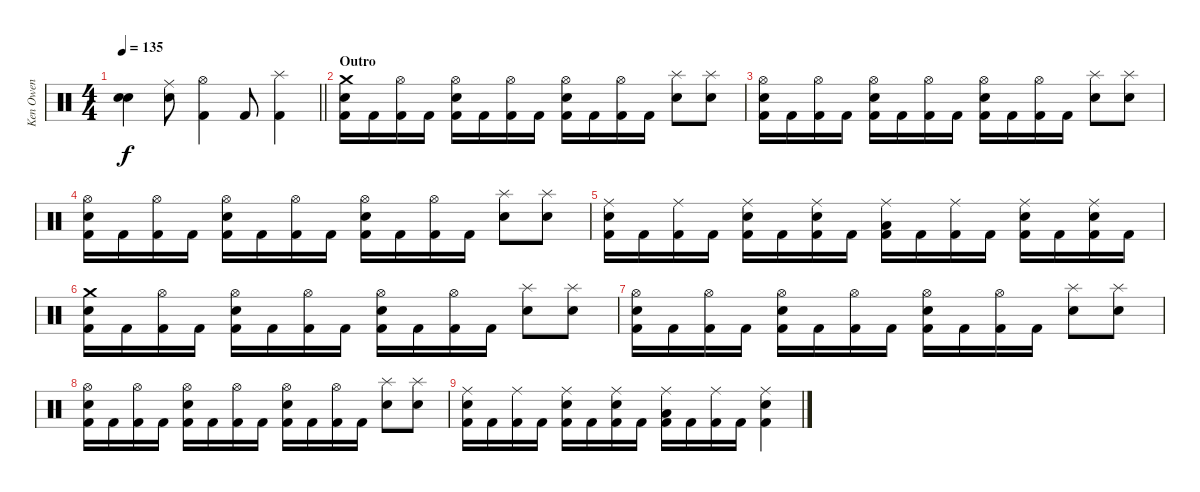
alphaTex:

\track ("Ken Owen" "Ken Owen") {instrument percussion}
\staff {score}
\articulation defaults
\ts (4 4)
\tempo 135
\clef neutral
\barLineRight lightlight
\ks c
("Snare (hit)"{t} "Snare (hit)"{t}).4{dy f} ("Ride (middle)" "Electric Snare (hit)").8 ("Hi-Hat (open)" "Kick (hit) 2").4 "Kick (hit) 2".8 ("Splash (hit)" "Kick (hit) 2").4 |
\section ("" "Outro")
("Crash medium (hit)" "Electric Snare (hit)" "Kick (hit) 2").16 "Kick (hit) 2".16 ("Hi-Hat (open)" "Kick (hit) 2").16 "Kick (hit) 2".16 ("Hi-Hat (open)" "Electric Snare (hit)" "Kick (hit) 2").16 "Kick (hit) 2".16 ("Hi-Hat (open)" "Kick (hit) 2").16 "Kick (hit) 2".16 ("Hi-Hat (open)" "Electric Snare (hit)" "Kick (hit) 2").16 "Kick (hit) 2".16 ("Hi-Hat (open)" "Kick (hit) 2").16 "Kick (hit) 2".16 ("Splash (hit)" "Electric Snare (hit)").8 ("Splash (hit)" "Electric Snare (hit)").8 |
("Hi-Hat (open)" "Electric Snare (hit)" "Kick (hit) 2").16 "Kick (hit) 2".16 ("Hi-Hat (open)" "Kick (hit) 2").16 "Kick (hit) 2".16 ("Hi-Hat (open)" "Electric Snare (hit)" "Kick (hit) 2").16 "Kick (hit) 2".16 ("Hi-Hat (open)" "Kick (hit) 2").16 "Kick (hit) 2".16 ("Hi-Hat (open)" "Electric Snare (hit)" "Kick (hit) 2").16 "Kick (hit) 2".16 ("Hi-Hat (open)" "Kick (hit) 2").16 "Kick (hit) 2".16 ("Splash (hit)" "Electric Snare (hit)").8 ("Splash (hit)" "Electric Snare (hit)").8 |
("Hi-Hat (open)" "Electric Snare (hit)" "Kick (hit) 2").16 "Kick (hit) 2".16 ("Hi-Hat (open)" "Kick (hit) 2").16 "Kick (hit) 2".16 ("Hi-Hat (open)" "Electric Snare (hit)" "Kick (hit) 2").16 "Kick (hit) 2".16 ("Hi-Hat (open)" "Kick (hit) 2").16 "Kick (hit) 2".16 ("Hi-Hat (open)" "Electric Snare (hit)" "Kick (hit) 2").16 "Kick (hit) 2".16 ("Hi-Hat (open)" "Kick (hit) 2").16 "Kick (hit) 2".16 ("Splash (hit)" "Electric Snare (hit)").8 ("Splash (hit)" "Electric Snare (hit)").8 |
("Ride (middle)" "Electric Snare (hit)" "Kick (hit) 2").16 "Kick (hit) 2".16 ("Ride (middle)" "Kick (hit) 2").16 "Kick (hit) 2".16 ("Ride (middle)" "Electric Snare (hit)" "Kick (hit) 2").16 "Kick (hit) 2".16 ("Ride (middle)" "Electric Snare (hit)" "Kick (hit) 2").16 "Kick (hit) 2".16 ("Ride (middle)" "Low Floor Tom (hit)" "Kick (hit) 2").16 "Kick (hit) 2".16 ("Ride (middle)" "Kick (hit) 2").16 "Kick (hit) 2".16 ("Ride (middle)" "Electric Snare (hit)" "Kick (hit) 2").16 "Kick (hit) 2".16 ("Ride (middle)" "Electric Snare (hit)" "Kick (hit) 2").16 "Kick (hit) 2".16 |
("Crash medium (hit)" "Electric Snare (hit)" "Kick (hit) 2").16 "Kick (hit) 2".16 ("Hi-Hat (open)" "Kick (hit) 2").16 "Kick (hit) 2".16 ("Hi-Hat (open)" "Electric Snare (hit)" "Kick (hit) 2").16 "Kick (hit) 2".16 ("Hi-Hat (open)" "Kick (hit) 2").16 "Kick (hit) 2".16 ("Hi-Hat (open)" "Electric Snare (hit)" "Kick (hit) 2").16 "Kick (hit) 2".16 ("Hi-Hat (open)" "Kick (hit) 2").16 "Kick (hit) 2".16 ("Splash (hit)" "Electric Snare (hit)").8 ("Splash (hit)" "Electric Snare (hit)").8 |
("Hi-Hat (open)" "Electric Snare (hit)" "Kick (hit) 2").16 "Kick (hit) 2".16 ("Hi-Hat (open)" "Kick (hit) 2").16 "Kick (hit) 2".16 ("Hi-Hat (open)" "Electric Snare (hit)" "Kick (hit) 2").16 "Kick (hit) 2".16 ("Hi-Hat (open)" "Kick (hit) 2").16 "Kick (hit) 2".16 ("Hi-Hat (open)" "Electric Snare (hit)" "Kick (hit) 2").16 "Kick (hit) 2".16 ("Hi-Hat (open)" "Kick (hit) 2").16 "Kick (hit) 2".16 ("Splash (hit)" "Electric Snare (hit)").8 ("Splash (hit)" "Electric Snare (hit)").8 |
("Hi-Hat (open)" "Electric Snare (hit)" "Kick (hit) 2").16 "Kick (hit) 2".16 ("Hi-Hat (open)" "Kick (hit) 2").16 "Kick (hit) 2".16 ("Hi-Hat (open)" "Electric Snare (hit)" "Kick (hit) 2").16 "Kick (hit) 2".16 ("Hi-Hat (open)" "Kick (hit) 2").16 "Kick (hit) 2".16 ("Hi-Hat (open)" "Electric Snare (hit)" "Kick (hit) 2").16 "Kick (hit) 2".16 ("Hi-Hat (open)" "Kick (hit) 2").16 "Kick (hit) 2".16 ("Splash (hit)" "Electric Snare (hit)").8 ("Splash (hit)" "Electric Snare (hit)").8 |
("Ride (middle)" "Electric Snare (hit)" "Kick (hit) 2").16 "Kick (hit) 2".16 ("Ride (middle)" "Kick (hit) 2").16 "Kick (hit) 2".16 ("Ride (middle)" "Electric Snare (hit)" "Kick (hit) 2").16 "Kick (hit) 2".16 ("Ride (middle)" "Electric Snare (hit)" "Kick (hit) 2").16 "Kick (hit) 2".16 ("Ride (middle)" "Low Floor Tom (hit)" "Kick (hit) 2").16 "Kick (hit) 2".16 ("Ride (middle)" "Kick (hit) 2").16 "Kick (hit) 2".16 ("Ride (middle)" "Electric Snare (hit)" "Kick (hit) 2").4
